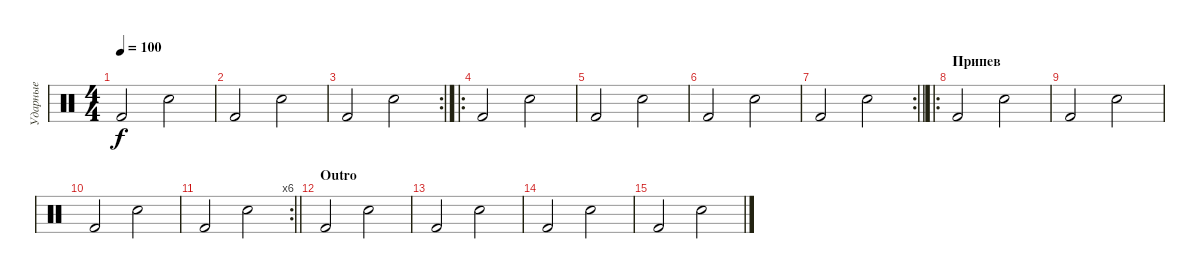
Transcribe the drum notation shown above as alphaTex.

\track ("Ударные" "Ударные") {instrument percussion}
\staff {score}
\articulation defaults
\ts (4 4)
\tempo 100
\clef neutral
\ks c "Kick (hit) 2".2{dy f} "Electric Snare (hit)".2
|
"Kick (hit) 2".2 "Electric Snare (hit)".2 |
\rc 2 "Kick (hit) 2".2 "Electric Snare (hit)".2
|
\ro "Kick (hit) 2".2 "Electric Snare (hit)".2
|
"Kick (hit) 2".2 "Electric Snare (hit)".2 |
"Kick (hit) 2".2 "Electric Snare (hit)".2 |
\rc 2
\barLineRight lightlight "Kick (hit) 2".2 "Electric Snare (hit)".2
|
\ro
\section ("" "Припев")
"Kick (hit) 2".2 "Electric Snare (hit)".2 |
"Kick (hit) 2".2 "Electric Snare (hit)".2 |
"Kick (hit) 2".2 "Electric Snare (hit)".2 |
\rc 6
\barLineRight lightlight "Kick (hit) 2".2 "Electric Snare (hit)".2
|
\section ("" "Outro")
"Kick (hit) 2".2 "Electric Snare (hit)".2 |
"Kick (hit) 2".2 "Electric Snare (hit)".2 |
"Kick (hit) 2".2 "Electric Snare (hit)".2 |
"Kick (hit) 2".2 "Electric Snare (hit)".2
